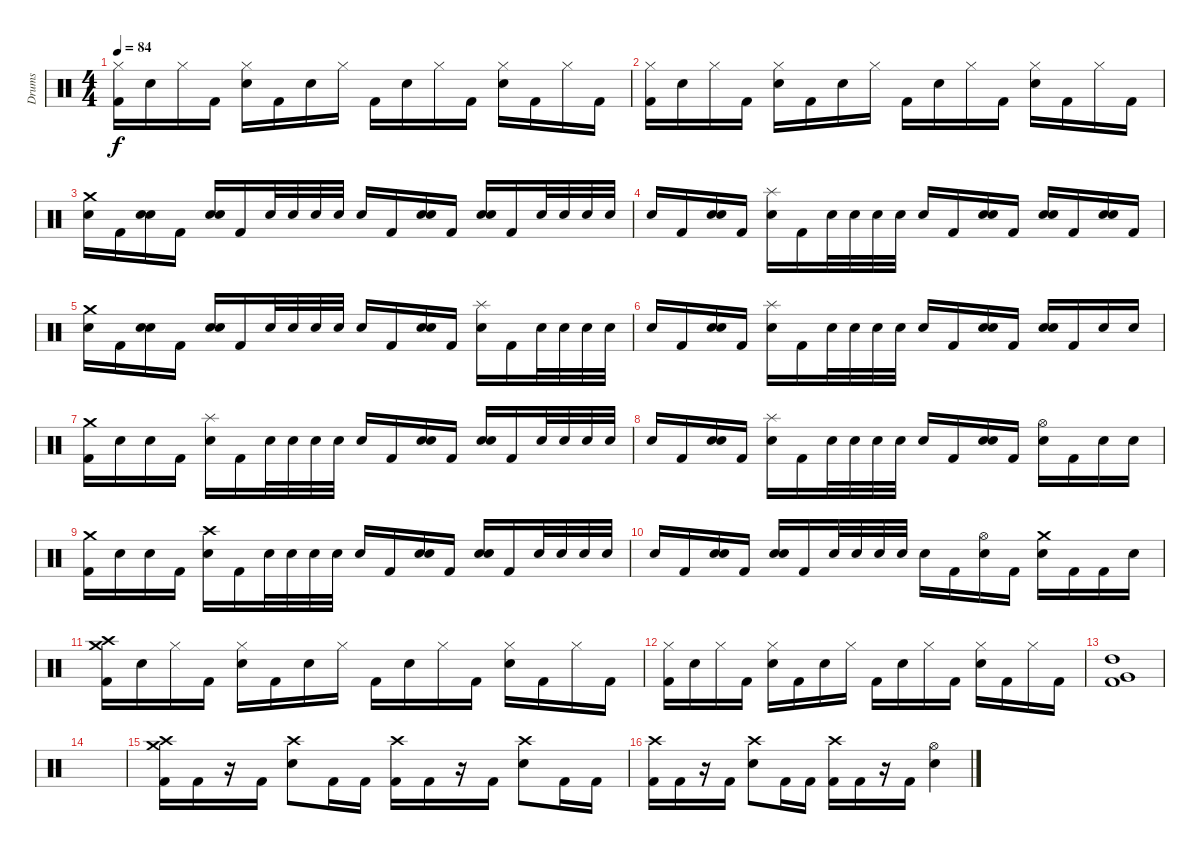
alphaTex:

\track ("Drums" "Drums") {instrument percussion}
\staff {score}
\articulation defaults
\ts (4 4)
\tempo 84
\clef neutral
\ks c
("Hi-Hat (closed)" "Kick (hit) 2").16{dy f} "Electric Snare (hit)".16 "Hi-Hat (closed)".16 "Kick (hit) 2".16 ("Hi-Hat (closed)" "Electric Snare (hit)").16 "Kick (hit) 2".16 "Electric Snare (hit)".16 "Hi-Hat (closed)".16 "Kick (hit) 2".16 "Electric Snare (hit)".16 "Hi-Hat (closed)".16 "Kick (hit) 2".16 ("Hi-Hat (closed)" "Electric Snare (hit)").16 "Kick (hit) 2".16 "Hi-Hat (closed)".16 "Kick (hit) 2".16 |
("Hi-Hat (closed)" "Kick (hit) 2").16 "Electric Snare (hit)".16 "Hi-Hat (closed)".16 "Kick (hit) 2".16 ("Hi-Hat (closed)" "Electric Snare (hit)").16 "Kick (hit) 2".16 "Electric Snare (hit)".16 "Hi-Hat (closed)".16 "Kick (hit) 2".16 "Electric Snare (hit)".16 "Hi-Hat (closed)".16 "Kick (hit) 2".16 ("Hi-Hat (closed)" "Electric Snare (hit)").16 "Kick (hit) 2".16 "Hi-Hat (closed)".16 "Kick (hit) 2".16 |
("Crash medium (hit)" "Electric Snare (hit)").16{volume 13} "Kick (hit) 2".16 ("Electric Snare (hit)" "Electric Snare (hit)").16 "Kick (hit) 2".16 ("Electric Snare (hit)" "Electric Snare (hit)").16 "Kick (hit) 2".16 "Electric Snare (hit)".32 "Electric Snare (hit)".32 "Electric Snare (hit)".32 "Electric Snare (hit)".32 "Electric Snare (hit)".16 "Kick (hit) 2".16 ("Electric Snare (hit)" "Electric Snare (hit)").16 "Kick (hit) 2".16 ("Electric Snare (hit)" "Electric Snare (hit)").16 "Kick (hit) 2".16 "Electric Snare (hit)".32 "Electric Snare (hit)".32 "Electric Snare (hit)".32 "Electric Snare (hit)".32 |
"Electric Snare (hit)".16 "Kick (hit) 2".16 ("Electric Snare (hit)" "Electric Snare (hit)").16 "Kick (hit) 2".16 ("Splash (hit)" "Electric Snare (hit)").16 "Kick (hit) 2".16 "Electric Snare (hit)".32 "Electric Snare (hit)".32 "Electric Snare (hit)".32 "Electric Snare (hit)".32 "Electric Snare (hit)".16 "Kick (hit) 2".16 ("Electric Snare (hit)" "Electric Snare (hit)").16 "Kick (hit) 2".16 ("Electric Snare (hit)" "Electric Snare (hit)").16 "Kick (hit) 2".16 ("Electric Snare (hit)" "Electric Snare (hit)").16 "Kick (hit) 2".16 |
("Crash medium (hit)" "Electric Snare (hit)").16 "Kick (hit) 2".16 ("Electric Snare (hit)" "Electric Snare (hit)").16 "Kick (hit) 2".16 ("Electric Snare (hit)" "Electric Snare (hit)").16 "Kick (hit) 2".16 "Electric Snare (hit)".32 "Electric Snare (hit)".32 "Electric Snare (hit)".32 "Electric Snare (hit)".32 "Electric Snare (hit)".16 "Kick (hit) 2".16 ("Electric Snare (hit)" "Electric Snare (hit)").16 "Kick (hit) 2".16 ("Splash (hit)" "Electric Snare (hit)").16 "Kick (hit) 2".16 "Electric Snare (hit)".32 "Electric Snare (hit)".32 "Electric Snare (hit)".32 "Electric Snare (hit)".32 |
"Electric Snare (hit)".16 "Kick (hit) 2".16 ("Electric Snare (hit)" "Electric Snare (hit)").16 "Kick (hit) 2".16 ("Splash (hit)" "Electric Snare (hit)").16 "Kick (hit) 2".16 "Electric Snare (hit)".32 "Electric Snare (hit)".32 "Electric Snare (hit)".32 "Electric Snare (hit)".32 "Electric Snare (hit)".16 "Kick (hit) 2".16 ("Electric Snare (hit)" "Electric Snare (hit)").16 "Kick (hit) 2".16 ("Electric Snare (hit)" "Electric Snare (hit)").16 "Kick (hit) 2".16 "Electric Snare (hit)".16 "Electric Snare (hit)".16 |
("Crash medium (hit)" "Kick (hit) 2").16{volume 13} "Electric Snare (hit)".16 "Electric Snare (hit)".16 "Kick (hit) 2".16 ("Splash (hit)" "Electric Snare (hit)").16 "Kick (hit) 2".16 "Electric Snare (hit)".32 "Electric Snare (hit)".32 "Electric Snare (hit)".32 "Electric Snare (hit)".32 "Electric Snare (hit)".16 "Kick (hit) 2".16 ("Electric Snare (hit)" "Electric Snare (hit)").16 "Kick (hit) 2".16 ("Electric Snare (hit)" "Electric Snare (hit)").16 "Kick (hit) 2".16 "Electric Snare (hit)".32 "Electric Snare (hit)".32 "Electric Snare (hit)".32 "Electric Snare (hit)".32 |
"Electric Snare (hit)".16 "Kick (hit) 2".16 ("Electric Snare (hit)" "Electric Snare (hit)").16 "Kick (hit) 2".16 ("Splash (hit)" "Electric Snare (hit)").16 "Kick (hit) 2".16 "Electric Snare (hit)".32 "Electric Snare (hit)".32 "Electric Snare (hit)".32 "Electric Snare (hit)".32 "Electric Snare (hit)".16 "Kick (hit) 2".16 ("Electric Snare (hit)" "Electric Snare (hit)").16 "Kick (hit) 2".16 ("Hi-Hat (open)" "Electric Snare (hit)").16 "Kick (hit) 2".16 "Electric Snare (hit)".16 "Electric Snare (hit)".16 |
("Crash medium (hit)" "Kick (hit) 2").16{volume 13} "Electric Snare (hit)".16 "Electric Snare (hit)".16 "Kick (hit) 2".16 ("Crash high (hit)" "Electric Snare (hit)").16 "Kick (hit) 2".16 "Electric Snare (hit)".32 "Electric Snare (hit)".32 "Electric Snare (hit)".32 "Electric Snare (hit)".32 "Electric Snare (hit)".16 "Kick (hit) 2".16 ("Electric Snare (hit)" "Electric Snare (hit)").16 "Kick (hit) 2".16 ("Electric Snare (hit)" "Electric Snare (hit)").16 "Kick (hit) 2".16 "Electric Snare (hit)".32 "Electric Snare (hit)".32 "Electric Snare (hit)".32 "Electric Snare (hit)".32 |
"Electric Snare (hit)".16 "Kick (hit) 2".16 ("Electric Snare (hit)" "Electric Snare (hit)").16 "Kick (hit) 2".16 ("Electric Snare (hit)" "Electric Snare (hit)").16 "Kick (hit) 2".16 "Electric Snare (hit)".32 "Electric Snare (hit)".32 "Electric Snare (hit)".32 "Electric Snare (hit)".32 "Electric Snare (hit)".16 "Kick (hit) 2".16 ("Hi-Hat (open)" "Electric Snare (hit)").16 "Kick (hit) 2".16 ("Crash medium (hit)" "Electric Snare (hit)").16 "Kick (hit) 2".16 "Kick (hit) 2".16 "Electric Snare (hit)".16 |
("Crash high (hit)" "Crash medium (hit)" "Kick (hit) 2").16 "Electric Snare (hit)".16{volume 5} "Hi-Hat (closed)".16 "Kick (hit) 2".16 ("Hi-Hat (closed)" "Electric Snare (hit)").16 "Kick (hit) 2".16 "Electric Snare (hit)".16 "Hi-Hat (closed)".16 "Kick (hit) 2".16 "Electric Snare (hit)".16 "Hi-Hat (closed)".16 "Kick (hit) 2".16 ("Hi-Hat (closed)" "Electric Snare (hit)").16 "Kick (hit) 2".16 "Hi-Hat (closed)".16 "Kick (hit) 2".16 |
("Hi-Hat (closed)" "Kick (hit) 2").16 "Electric Snare (hit)".16 "Hi-Hat (closed)".16 "Kick (hit) 2".16 ("Hi-Hat (closed)" "Electric Snare (hit)").16 "Kick (hit) 2".16 "Electric Snare (hit)".16 "Hi-Hat (closed)".16 "Kick (hit) 2".16 "Electric Snare (hit)".16 "Hi-Hat (closed)".16 "Kick (hit) 2".16 ("Hi-Hat (closed)" "Electric Snare (hit)").16 "Kick (hit) 2".16 "Hi-Hat (closed)".16 "Kick (hit) 2".16 |
("High Tom (hit)" "Very Low Tom (hit)" "Kick (hit) 2").1{volume 13} |
|
("Crash medium (hit)" "Crash high (hit)" "Kick (hit) 2").16 "Kick (hit) 2".16 r.16 "Kick (hit) 2".16 ("Crash high (hit)" "Electric Snare (hit)").8 "Kick (hit) 2".16 "Kick (hit) 2".16 ("Crash high (hit)" "Kick (hit) 2").16 "Kick (hit) 2".16 r.16 "Kick (hit) 2".16 ("Crash high (hit)" "Electric Snare (hit)").8 "Kick (hit) 2".16 "Kick (hit) 2".16 |
("Crash high (hit)" "Kick (hit) 2").16 "Kick (hit) 2".16 r.16 "Kick (hit) 2".16 ("Crash high (hit)" "Electric Snare (hit)").8 "Kick (hit) 2".16 "Kick (hit) 2".16 ("Crash high (hit)" "Kick (hit) 2").16 "Kick (hit) 2".16 r.16 "Kick (hit) 2".16 ("Hi-Hat (open)" "Electric Snare (hit)").4
